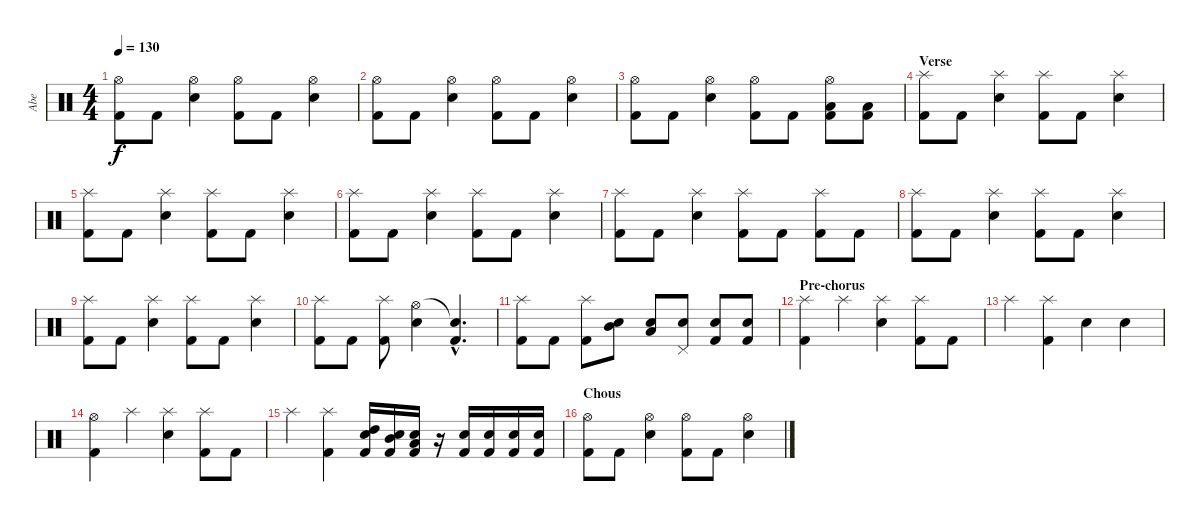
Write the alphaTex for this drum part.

\track ("Abe" "Abe") {instrument percussion}
\staff {score}
\articulation defaults
\ts (4 4)
\tempo 130
\clef neutral
\ks c
("Hi-Hat (open)" "Kick (hit) 2").8{dy f} "Kick (hit) 2".8 ("Hi-Hat (open)" "Snare (hit) 2").4 ("Hi-Hat (open)" "Kick (hit) 2").8 "Kick (hit) 2".8 ("Hi-Hat (open)" "Snare (hit) 2").4 |
("Hi-Hat (open)" "Kick (hit) 2").8 "Kick (hit) 2".8 ("Hi-Hat (open)" "Snare (hit) 2").4 ("Hi-Hat (open)" "Kick (hit) 2").8 "Kick (hit) 2".8 ("Hi-Hat (open)" "Snare (hit) 2").4 |
("Hi-Hat (open)" "Kick (hit) 2").8 "Kick (hit) 2".8 ("Hi-Hat (open)" "Snare (hit) 2").4 ("Hi-Hat (open)" "Kick (hit) 2").8 "Kick (hit) 2".8 ("Hi-Hat (open)" "Kick (hit) 2" "Low Floor Tom (hit)").8 ("Kick (hit) 2" "Low Floor Tom (hit)").8 |
\section ("" "Verse")
("Splash (hit)" "Kick (hit) 2").8 "Kick (hit) 2".8 ("Splash (hit)" "Snare (hit) 2").4 ("Splash (hit)" "Kick (hit) 2").8 "Kick (hit) 2".8 ("Splash (hit)" "Snare (hit) 2").4 |
("Splash (hit)" "Kick (hit) 2").8 "Kick (hit) 2".8 ("Splash (hit)" "Snare (hit) 2").4 ("Splash (hit)" "Kick (hit) 2").8 "Kick (hit) 2".8 ("Splash (hit)" "Snare (hit) 2").4 |
("Splash (hit)" "Kick (hit) 2").8 "Kick (hit) 2".8 ("Splash (hit)" "Snare (hit) 2").4 ("Splash (hit)" "Kick (hit) 2").8 "Kick (hit) 2".8 ("Splash (hit)" "Snare (hit) 2").4 |
("Splash (hit)" "Kick (hit) 2").8 "Kick (hit) 2".8 ("Splash (hit)" "Snare (hit) 2").4 ("Splash (hit)" "Kick (hit) 2").8 "Kick (hit) 2".8 ("Splash (hit)" "Kick (hit) 2").8 "Kick (hit) 2".8 |
("Splash (hit)" "Kick (hit) 2").8 "Kick (hit) 2".8 ("Splash (hit)" "Snare (hit) 2").4 ("Splash (hit)" "Kick (hit) 2").8 "Kick (hit) 2".8 ("Splash (hit)" "Snare (hit) 2").4 |
("Splash (hit)" "Kick (hit) 2").8 "Kick (hit) 2".8 ("Splash (hit)" "Snare (hit) 2").4 ("Splash (hit)" "Kick (hit) 2").8 "Kick (hit) 2".8 ("Splash (hit)" "Snare (hit) 2").4 |
("Splash (hit)" "Kick (hit) 2").8 "Kick (hit) 2".8 ("Splash (hit)" "Kick (hit) 2").8 ("Hi-Hat (open)" "Snare (hit) 2").4 ("Snare (hit)"{hac t} "Kick (hit) 2"{hac}).4{d} |
("Splash (hit)" "Kick (hit) 2").8 "Kick (hit) 2".8 ("Splash (hit)" "Kick (hit) 2").8 ("Snare (hit) 2" "Mid Tom (hit)").8 ("Snare (hit) 2" "Low Tom (hit)").8 ("Snare (hit) 2" "Pedal Hi-Hat (hit)").8 ("Snare (hit) 2" "Kick (hit) 2").8 ("Snare (hit) 2" "Kick (hit) 2").8 |
\section ("" "Pre-chorus")
("Splash (hit)" "Kick (hit) 2").4 "Splash (hit)".4 ("Splash (hit)" "Snare (hit) 2").4 ("Splash (hit)" "Kick (hit) 2").8 "Kick (hit) 2".8 |
"Splash (hit)".4 ("Splash (hit)" "Kick (hit) 2").4 "Snare (hit) 2".4 "Snare (hit) 2".4 |
("Hi-Hat (open)" "Kick (hit) 2").4 "Splash (hit)".4 ("Splash (hit)" "Snare (hit) 2").4 ("Splash (hit)" "Kick (hit) 2").8 "Kick (hit) 2".8 |
"Splash (hit)".4 ("Splash (hit)" "Kick (hit) 2").4 ("Kick (hit) 2" "Snare (hit) 2" "High Tom (hit)").16 ("Kick (hit) 2" "Snare (hit) 2" "Mid Tom (hit)").16 ("Kick (hit) 2" "Snare (hit) 2" "Low Tom (hit)").16 r.16 ("Kick (hit) 2" "Snare (hit) 2").16 ("Kick (hit) 2" "Snare (hit) 2").16 ("Kick (hit) 2" "Snare (hit) 2").16 ("Kick (hit) 2" "Snare (hit) 2").16 |
\section ("" "Chous")
("Hi-Hat (open)" "Kick (hit) 2").8 "Kick (hit) 2".8 ("Hi-Hat (open)" "Snare (hit) 2").4 ("Hi-Hat (open)" "Kick (hit) 2").8 "Kick (hit) 2".8 ("Hi-Hat (open)" "Snare (hit) 2").4
